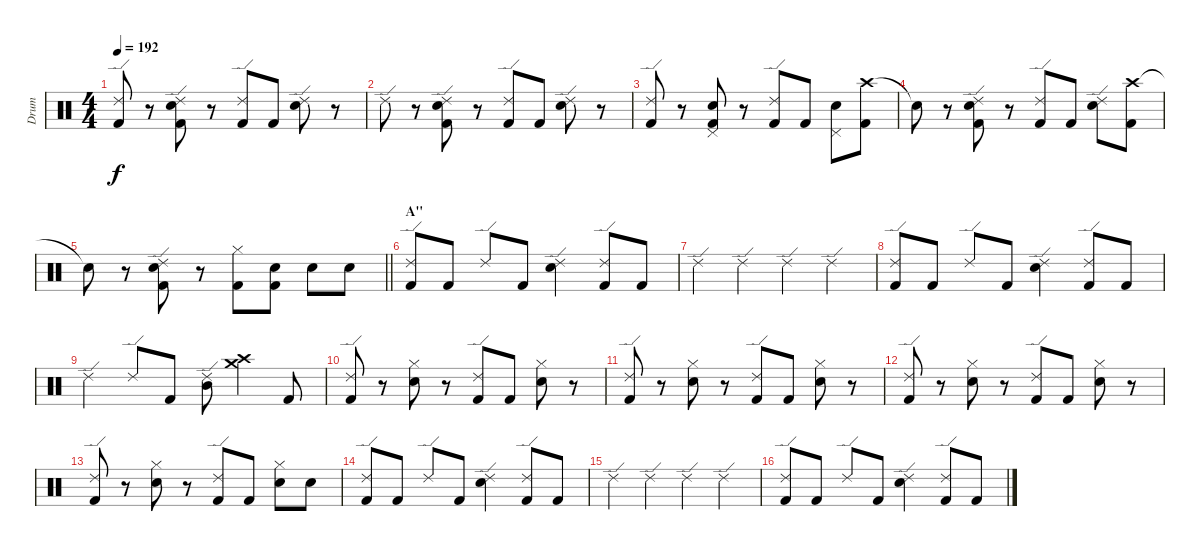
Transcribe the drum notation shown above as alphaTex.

\track ("Drum" "Drum") {instrument percussion}
\staff {score}
\articulation defaults
\ts (4 4)
\tempo 192
\clef neutral
\ks c
("Ride (edge) 2" "Kick (hit) 2").8{dy f} r.8 ("Ride (edge) 2" "Electric Snare (hit)" "Kick (hit) 2").8 r.8 ("Ride (edge) 2" "Kick (hit) 2").8 "Kick (hit) 2".8 ("Ride (edge) 2" "Electric Snare (hit)").8 r.8 |
"Ride (edge) 2".8 r.8 ("Ride (edge) 2" "Electric Snare (hit)" "Kick (hit) 2").8 r.8 ("Ride (edge) 2" "Kick (hit) 2").8 "Kick (hit) 2".8 ("Ride (edge) 2" "Electric Snare (hit)").8 r.8 |
("Ride (edge) 2" "Kick (hit) 2").8 r.8 ("Pedal Hi-Hat (hit)" "Electric Snare (hit)" "Kick (hit) 2").8 r.8 ("Ride (edge) 2" "Kick (hit) 2").8 "Kick (hit) 2".8 ("Pedal Hi-Hat (hit)" "Electric Snare (hit)").8 ("Crash high (hit)" "Kick (hit) 2").8 |
"Snare (hit)"{t}.8 r.8 ("Ride (edge) 2" "Electric Snare (hit)" "Kick (hit) 2").8 r.8 ("Ride (edge) 2" "Kick (hit) 2").8 "Kick (hit) 2".8 ("Ride (edge) 2" "Electric Snare (hit)").8 ("Crash high (hit)" "Kick (hit) 2").8 |
\barLineRight lightlight "Snare (hit)"{t}.8
r.8 ("Ride (edge) 2" "Electric Snare (hit)" "Kick (hit) 2").8 r.8 ("Hi-Hat (closed)" "Kick (hit) 2").8 ("Electric Snare (hit)" "Kick (hit) 2").8 "Electric Snare (hit)".8 "Electric Snare (hit)".8 |
\section ("" "A''")
("Ride (edge) 2" "Kick (hit) 2").8 "Kick (hit) 2".8 "Ride (edge) 2".8 "Kick (hit) 2".8 ("Ride (edge) 2" "Electric Snare (hit)").4 ("Ride (edge) 2" "Kick (hit) 2").8 "Kick (hit) 2".8 |
"Ride (edge) 2".4 "Ride (edge) 2".4 "Ride (edge) 2".4 "Ride (edge) 2".4 |
("Ride (edge) 2" "Kick (hit) 2").8 "Kick (hit) 2".8 "Ride (edge) 2".8 "Kick (hit) 2".8 ("Ride (edge) 2" "Electric Snare (hit)").4 ("Ride (edge) 2" "Kick (hit) 2").8 "Kick (hit) 2".8 |
"Ride (edge) 2".4 "Ride (edge) 2".8 "Kick (hit) 2".8 ("Ride (edge) 2" "Mid Tom (hit)").8 ("Crash high (hit)" "Crash medium (hit)").4 "Kick (hit) 2".8 |
("Ride (edge) 2" "Kick (hit) 2").8 r.8 ("Hi-Hat (closed)" "Electric Snare (hit)").8 r.8 ("Ride (edge) 2" "Kick (hit) 2").8 "Kick (hit) 2".8 ("Hi-Hat (closed)" "Electric Snare (hit)").8 r.8 |
("Ride (edge) 2" "Kick (hit) 2").8 r.8 ("Hi-Hat (closed)" "Electric Snare (hit)").8 r.8 ("Ride (edge) 2" "Kick (hit) 2").8 "Kick (hit) 2".8 ("Hi-Hat (closed)" "Electric Snare (hit)").8 r.8 |
("Ride (edge) 2" "Kick (hit) 2").8 r.8 ("Hi-Hat (closed)" "Electric Snare (hit)").8 r.8 ("Ride (edge) 2" "Kick (hit) 2").8 "Kick (hit) 2".8 ("Hi-Hat (closed)" "Electric Snare (hit)").8 r.8 |
("Ride (edge) 2" "Kick (hit) 2").8 r.8 ("Hi-Hat (closed)" "Electric Snare (hit)").8 r.8 ("Ride (edge) 2" "Kick (hit) 2").8 "Kick (hit) 2".8 ("Hi-Hat (closed)" "Electric Snare (hit)").8 "Electric Snare (hit)".8 |
("Ride (edge) 2" "Kick (hit) 2").8 "Kick (hit) 2".8 "Ride (edge) 2".8 "Kick (hit) 2".8 ("Ride (edge) 2" "Electric Snare (hit)").4 ("Ride (edge) 2" "Kick (hit) 2").8 "Kick (hit) 2".8 |
"Ride (edge) 2".4 "Ride (edge) 2".4 "Ride (edge) 2".4 "Ride (edge) 2".4 |
("Ride (edge) 2" "Kick (hit) 2").8 "Kick (hit) 2".8 "Ride (edge) 2".8 "Kick (hit) 2".8 ("Ride (edge) 2" "Electric Snare (hit)").4 ("Ride (edge) 2" "Kick (hit) 2").8 "Kick (hit) 2".8
